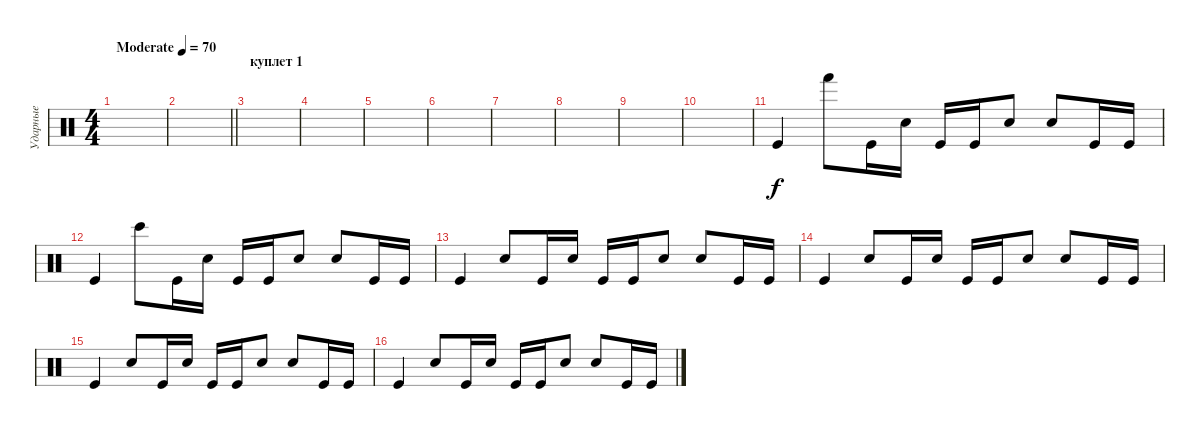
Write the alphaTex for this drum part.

\track ("Ударные" "Ударные") {instrument percussion}
\staff {score}
\articulation defaults
\ts (4 4)
\tempo (70 "Moderate")
\clef neutral
\ks c
|
\barLineRight lightlight
|
\section ("" "куплет 1")
|
|
|
|
|
|
|
|
"Kick (hit)".4 "Hand (hit)".8 "Kick (hit)".16 "Snare (hit) 2".16 "Kick (hit)".16 "Kick (hit)".16 "Snare (hit) 2".8 "Snare (hit) 2".8 "Kick (hit)".16 "Kick (hit)".16 |
"Kick (hit)".4 "Bongo High (hit)".8 "Kick (hit)".16 "Snare (hit) 2".16 "Kick (hit)".16 "Kick (hit)".16 "Snare (hit) 2".8 "Snare (hit) 2".8 "Kick (hit)".16 "Kick (hit)".16 |
"Kick (hit)".4 "Snare (hit) 2".8 "Kick (hit)".16 "Snare (hit) 2".16 "Kick (hit)".16 "Kick (hit)".16 "Snare (hit) 2".8 "Snare (hit) 2".8 "Kick (hit)".16 "Kick (hit)".16 |
"Kick (hit)".4 "Snare (hit) 2".8 "Kick (hit)".16 "Snare (hit) 2".16 "Kick (hit)".16 "Kick (hit)".16 "Snare (hit) 2".8 "Snare (hit) 2".8 "Kick (hit)".16 "Kick (hit)".16 |
"Kick (hit)".4 "Snare (hit) 2".8 "Kick (hit)".16 "Snare (hit) 2".16 "Kick (hit)".16 "Kick (hit)".16 "Snare (hit) 2".8 "Snare (hit) 2".8 "Kick (hit)".16 "Kick (hit)".16 |
"Kick (hit)".4 "Snare (hit) 2".8 "Kick (hit)".16 "Snare (hit) 2".16 "Kick (hit)".16 "Kick (hit)".16 "Snare (hit) 2".8 "Snare (hit) 2".8 "Kick (hit)".16 "Kick (hit)".16
